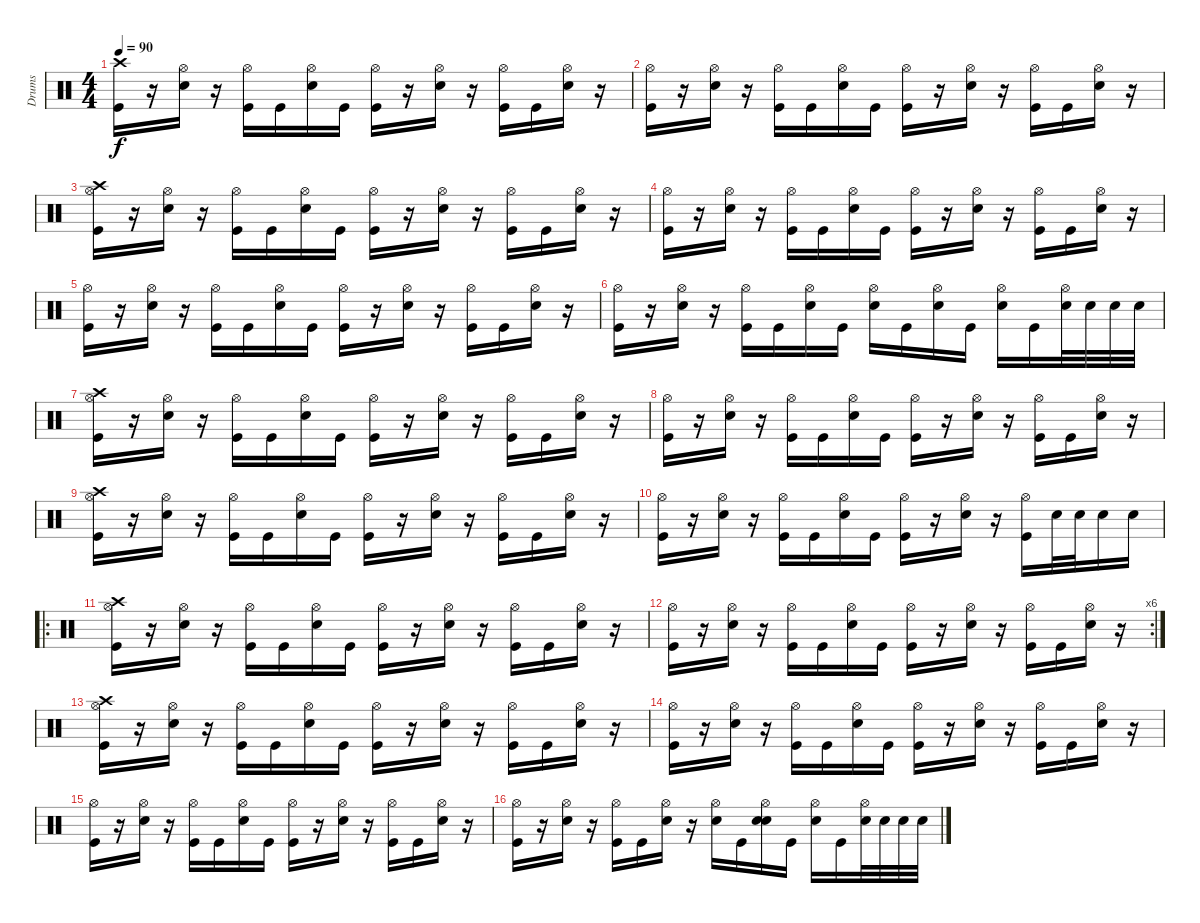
\track ("Drums" "Drums") {instrument percussion}
\staff {score}
\articulation defaults
\ts (4 4)
\tempo 90
\clef neutral
\ks c
("Crash high (hit)" "Kick (hit)").16{dy f} r.16 ("Hi-Hat (open)" "Electric Snare (hit)").16 r.16 ("Hi-Hat (open)" "Kick (hit)").16 "Kick (hit)".16 ("Hi-Hat (open)" "Electric Snare (hit)").16 "Kick (hit)".16 ("Hi-Hat (open)" "Kick (hit)").16 r.16 ("Hi-Hat (open)" "Electric Snare (hit)").16 r.16 ("Hi-Hat (open)" "Kick (hit)").16 "Kick (hit)".16 ("Hi-Hat (open)" "Electric Snare (hit)").16 r.16 |
("Hi-Hat (open)" "Kick (hit)").16 r.16 ("Hi-Hat (open)" "Electric Snare (hit)").16 r.16 ("Hi-Hat (open)" "Kick (hit)").16 "Kick (hit)".16 ("Hi-Hat (open)" "Electric Snare (hit)").16 "Kick (hit)".16 ("Hi-Hat (open)" "Kick (hit)").16 r.16 ("Hi-Hat (open)" "Electric Snare (hit)").16 r.16 ("Hi-Hat (open)" "Kick (hit)").16 "Kick (hit)".16 ("Hi-Hat (open)" "Electric Snare (hit)").16 r.16 |
("Crash high (hit)" "Hi-Hat (open)" "Kick (hit)").16 r.16 ("Hi-Hat (open)" "Electric Snare (hit)").16 r.16 ("Hi-Hat (open)" "Kick (hit)").16 "Kick (hit)".16 ("Hi-Hat (open)" "Electric Snare (hit)").16 "Kick (hit)".16 ("Hi-Hat (open)" "Kick (hit)").16 r.16 ("Hi-Hat (open)" "Electric Snare (hit)").16 r.16 ("Hi-Hat (open)" "Kick (hit)").16 "Kick (hit)".16 ("Hi-Hat (open)" "Electric Snare (hit)").16 r.16 |
("Hi-Hat (open)" "Kick (hit)").16 r.16 ("Hi-Hat (open)" "Electric Snare (hit)").16 r.16 ("Hi-Hat (open)" "Kick (hit)").16 "Kick (hit)".16 ("Hi-Hat (open)" "Electric Snare (hit)").16 "Kick (hit)".16 ("Hi-Hat (open)" "Kick (hit)").16 r.16 ("Hi-Hat (open)" "Electric Snare (hit)").16 r.16 ("Hi-Hat (open)" "Kick (hit)").16 "Kick (hit)".16 ("Hi-Hat (open)" "Electric Snare (hit)").16 r.16 |
("Hi-Hat (open)" "Kick (hit)").16 r.16 ("Hi-Hat (open)" "Electric Snare (hit)").16 r.16 ("Hi-Hat (open)" "Kick (hit)").16 "Kick (hit)".16 ("Hi-Hat (open)" "Electric Snare (hit)").16 "Kick (hit)".16 ("Hi-Hat (open)" "Kick (hit)").16 r.16 ("Hi-Hat (open)" "Electric Snare (hit)").16 r.16 ("Hi-Hat (open)" "Kick (hit)").16 "Kick (hit)".16 ("Hi-Hat (open)" "Electric Snare (hit)").16 r.16 |
("Hi-Hat (open)" "Kick (hit)").16 r.16 ("Hi-Hat (open)" "Electric Snare (hit)").16 r.16 ("Hi-Hat (open)" "Kick (hit)").16 "Kick (hit)".16 ("Hi-Hat (open)" "Electric Snare (hit)").16 "Kick (hit)".16 ("Hi-Hat (open)" "Electric Snare (hit)").16 "Kick (hit)".16 ("Hi-Hat (open)" "Electric Snare (hit)").16 "Kick (hit)".16 ("Hi-Hat (open)" "Electric Snare (hit)").16 "Kick (hit)".16 ("Hi-Hat (open)" "Electric Snare (hit)").32 "Electric Snare (hit)".32 "Electric Snare (hit)".32 "Electric Snare (hit)".32 |
("Crash high (hit)" "Hi-Hat (open)" "Kick (hit)").16 r.16 ("Hi-Hat (open)" "Electric Snare (hit)").16 r.16 ("Hi-Hat (open)" "Kick (hit)").16 "Kick (hit)".16 ("Hi-Hat (open)" "Electric Snare (hit)").16 "Kick (hit)".16 ("Hi-Hat (open)" "Kick (hit)").16 r.16 ("Hi-Hat (open)" "Electric Snare (hit)").16 r.16 ("Hi-Hat (open)" "Kick (hit)").16 "Kick (hit)".16 ("Hi-Hat (open)" "Electric Snare (hit)").16 r.16 |
("Hi-Hat (open)" "Kick (hit)").16 r.16 ("Hi-Hat (open)" "Electric Snare (hit)").16 r.16 ("Hi-Hat (open)" "Kick (hit)").16 "Kick (hit)".16 ("Hi-Hat (open)" "Electric Snare (hit)").16 "Kick (hit)".16 ("Hi-Hat (open)" "Kick (hit)").16 r.16 ("Hi-Hat (open)" "Electric Snare (hit)").16 r.16 ("Hi-Hat (open)" "Kick (hit)").16 "Kick (hit)".16 ("Hi-Hat (open)" "Electric Snare (hit)").16 r.16 |
("Crash high (hit)" "Hi-Hat (open)" "Kick (hit)").16 r.16 ("Hi-Hat (open)" "Electric Snare (hit)").16 r.16 ("Hi-Hat (open)" "Kick (hit)").16 "Kick (hit)".16 ("Hi-Hat (open)" "Electric Snare (hit)").16 "Kick (hit)".16 ("Hi-Hat (open)" "Kick (hit)").16 r.16 ("Hi-Hat (open)" "Electric Snare (hit)").16 r.16 ("Hi-Hat (open)" "Kick (hit)").16 "Kick (hit)".16 ("Hi-Hat (open)" "Electric Snare (hit)").16 r.16 |
("Hi-Hat (open)" "Kick (hit)").16 r.16 ("Hi-Hat (open)" "Electric Snare (hit)").16 r.16 ("Hi-Hat (open)" "Kick (hit)").16 "Kick (hit)".16 ("Hi-Hat (open)" "Electric Snare (hit)").16 "Kick (hit)".16 ("Hi-Hat (open)" "Kick (hit)").16 r.16 ("Hi-Hat (open)" "Electric Snare (hit)").16 r.16 ("Hi-Hat (open)" "Kick (hit)").16 "Electric Snare (hit)".32 "Electric Snare (hit)".32 "Electric Snare (hit)".16 "Electric Snare (hit)".16 |
\ro
("Crash high (hit)" "Hi-Hat (open)" "Kick (hit)").16 r.16 ("Hi-Hat (open)" "Electric Snare (hit)").16 r.16 ("Hi-Hat (open)" "Kick (hit)").16 "Kick (hit)".16 ("Hi-Hat (open)" "Electric Snare (hit)").16 "Kick (hit)".16 ("Hi-Hat (open)" "Kick (hit)").16 r.16 ("Hi-Hat (open)" "Electric Snare (hit)").16 r.16 ("Hi-Hat (open)" "Kick (hit)").16 "Kick (hit)".16 ("Hi-Hat (open)" "Electric Snare (hit)").16 r.16 |
\rc 6
("Hi-Hat (open)" "Kick (hit)").16 r.16 ("Hi-Hat (open)" "Electric Snare (hit)").16 r.16 ("Hi-Hat (open)" "Kick (hit)").16 "Kick (hit)".16 ("Hi-Hat (open)" "Electric Snare (hit)").16 "Kick (hit)".16 ("Hi-Hat (open)" "Kick (hit)").16 r.16 ("Hi-Hat (open)" "Electric Snare (hit)").16 r.16 ("Hi-Hat (open)" "Kick (hit)").16 "Kick (hit)".16 ("Hi-Hat (open)" "Electric Snare (hit)").16 r.16 |
("Crash high (hit)" "Hi-Hat (open)" "Kick (hit)").16 r.16 ("Hi-Hat (open)" "Electric Snare (hit)").16 r.16 ("Hi-Hat (open)" "Kick (hit)").16 "Kick (hit)".16 ("Hi-Hat (open)" "Electric Snare (hit)").16 "Kick (hit)".16 ("Hi-Hat (open)" "Kick (hit)").16 r.16 ("Hi-Hat (open)" "Electric Snare (hit)").16 r.16 ("Hi-Hat (open)" "Kick (hit)").16 "Kick (hit)".16 ("Hi-Hat (open)" "Electric Snare (hit)").16 r.16 |
("Hi-Hat (open)" "Kick (hit)").16 r.16 ("Hi-Hat (open)" "Electric Snare (hit)").16 r.16 ("Hi-Hat (open)" "Kick (hit)").16 "Kick (hit)".16 ("Hi-Hat (open)" "Electric Snare (hit)").16 "Kick (hit)".16 ("Hi-Hat (open)" "Kick (hit)").16 r.16 ("Hi-Hat (open)" "Electric Snare (hit)").16 r.16 ("Hi-Hat (open)" "Kick (hit)").16 "Kick (hit)".16 ("Hi-Hat (open)" "Electric Snare (hit)").16 r.16 |
("Hi-Hat (open)" "Kick (hit)").16 r.16 ("Hi-Hat (open)" "Electric Snare (hit)").16 r.16 ("Hi-Hat (open)" "Kick (hit)").16 "Kick (hit)".16 ("Hi-Hat (open)" "Electric Snare (hit)").16 "Kick (hit)".16 ("Hi-Hat (open)" "Kick (hit)").16 r.16 ("Hi-Hat (open)" "Electric Snare (hit)").16 r.16 ("Hi-Hat (open)" "Kick (hit)").16 "Kick (hit)".16 ("Hi-Hat (open)" "Electric Snare (hit)").16 r.16 |
("Hi-Hat (open)" "Kick (hit)").16 r.16 ("Hi-Hat (open)" "Electric Snare (hit)").16 r.16 ("Hi-Hat (open)" "Kick (hit)").16 "Kick (hit)".16 ("Hi-Hat (open)" "Electric Snare (hit)").16 r.16 ("Hi-Hat (open)" "Electric Snare (hit)").16 "Kick (hit)".16 ("Hi-Hat (open)" "Electric Snare (hit)" "Electric Snare (hit)").16 "Kick (hit)".16 ("Hi-Hat (open)" "Electric Snare (hit)").16 "Kick (hit)".16 ("Hi-Hat (open)" "Electric Snare (hit)").32 "Electric Snare (hit)".32 "Electric Snare (hit)".32 "Electric Snare (hit)".32
